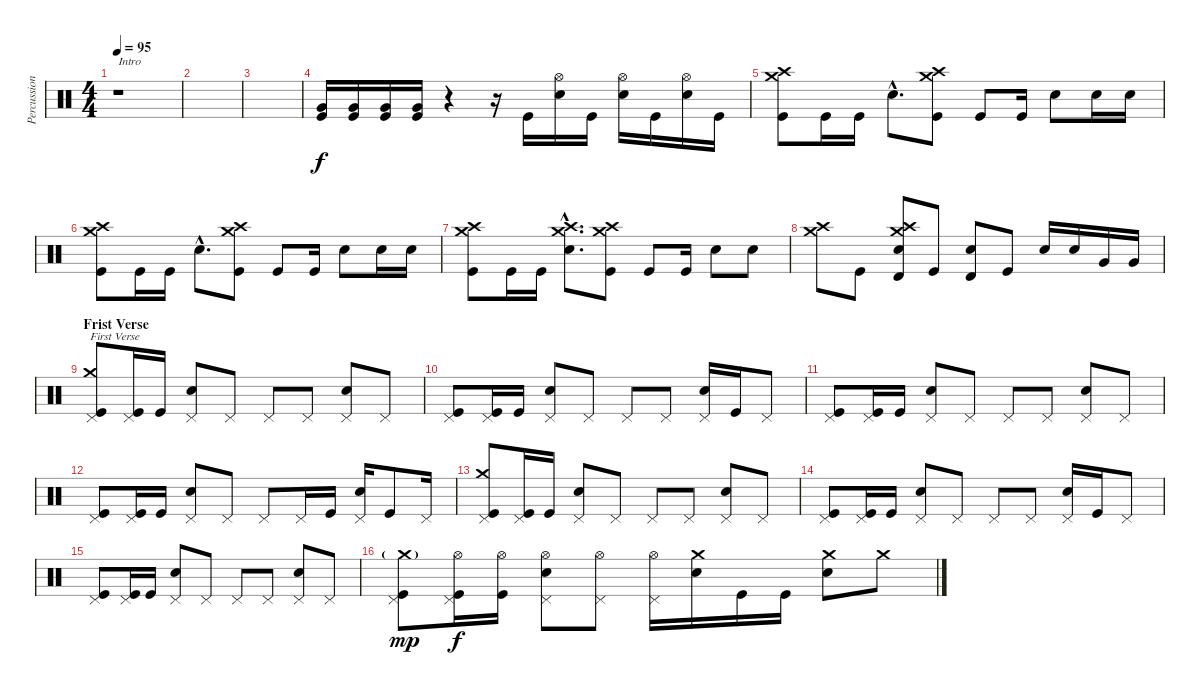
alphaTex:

\track ("Percussion" "Percussion") {instrument percussion}
\staff {score}
\articulation defaults
\ts (4 4)
\tempo 95
\clef neutral
\ks c
r.1{txt "Intro" dy f} |
|
|
("Very Low Tom (hit)" "Kick (hit)").16 ("Very Low Tom (hit)" "Kick (hit)").16 ("Very Low Tom (hit)" "Kick (hit)").16 ("Very Low Tom (hit)" "Kick (hit)").16 r.4 r.16 "Kick (hit)".16 ("Hi-Hat (open)" "Electric Snare (hit)").16 "Kick (hit)".16 ("Hi-Hat (open)" "Electric Snare (hit)").16 "Kick (hit)".16 ("Hi-Hat (open)" "Electric Snare (hit)").16 "Kick (hit)".16 |
("Crash medium (hit)" "Crash high (hit)" "Kick (hit)").8 "Kick (hit)".16 "Kick (hit)".16 "Electric Snare (hit)"{hac}.8{d} ("Crash high (hit)" "Crash medium (hit)" "Kick (hit)").8 "Kick (hit)".8 "Kick (hit)".16 "Electric Snare (hit)".8 "Electric Snare (hit)".16 "Electric Snare (hit)".16 |
("Crash medium (hit)" "Crash high (hit)" "Kick (hit)").8 "Kick (hit)".16 "Kick (hit)".16 "Electric Snare (hit)"{hac}.8{d} ("Crash high (hit)" "Crash medium (hit)" "Kick (hit)").8 "Kick (hit)".8 "Kick (hit)".16 "Electric Snare (hit)".8 "Electric Snare (hit)".16 "Electric Snare (hit)".16 |
("Crash medium (hit)" "Crash high (hit)" "Kick (hit)").8 "Kick (hit)".16 "Kick (hit)".16 ("Electric Snare (hit)"{hac} "Crash medium (hit)"{hac} "Crash high (hit)"{hac}).8{d} ("Crash high (hit)" "Crash medium (hit)" "Kick (hit)").8 "Kick (hit)".8 "Kick (hit)".16 "Electric Snare (hit)".8 "Electric Snare (hit)".8 |
("Crash medium (hit)" "Crash high (hit)").8 "Kick (hit)".8 ("Timbale high (hit)" "Electric Snare (hit)" "Crash medium (hit)" "Crash high (hit)").8 "Kick (hit)".8 ("Timbale high (hit)" "Electric Snare (hit)").8 "Kick (hit)".8 "Electric Snare (hit)".16 "Electric Snare (hit)".16 "Very Low Tom (hit)".16 "Very Low Tom (hit)".16 |
\section ("" "Frist Verse")
("Pedal Hi-Hat (hit)" "Crash medium (hit)" "Kick (hit)").8{txt "First Verse"} ("Pedal Hi-Hat (hit)" "Kick (hit)").16 "Kick (hit)".16 ("Pedal Hi-Hat (hit)" "Electric Snare (hit)").8 "Pedal Hi-Hat (hit)".8 "Pedal Hi-Hat (hit)".8 "Pedal Hi-Hat (hit)".8 ("Pedal Hi-Hat (hit)" "Electric Snare (hit)").8 "Pedal Hi-Hat (hit)".8 |
("Pedal Hi-Hat (hit)" "Kick (hit)").8 ("Pedal Hi-Hat (hit)" "Kick (hit)").16 "Kick (hit)".16 ("Pedal Hi-Hat (hit)" "Electric Snare (hit)").8 "Pedal Hi-Hat (hit)".8 "Pedal Hi-Hat (hit)".8 "Pedal Hi-Hat (hit)".8 ("Pedal Hi-Hat (hit)" "Electric Snare (hit)").16 "Kick (hit)".16 "Pedal Hi-Hat (hit)".8 |
("Pedal Hi-Hat (hit)" "Kick (hit)").8 ("Pedal Hi-Hat (hit)" "Kick (hit)").16 "Kick (hit)".16 ("Pedal Hi-Hat (hit)" "Electric Snare (hit)").8 "Pedal Hi-Hat (hit)".8 "Pedal Hi-Hat (hit)".8 "Pedal Hi-Hat (hit)".8 ("Pedal Hi-Hat (hit)" "Electric Snare (hit)").8 "Pedal Hi-Hat (hit)".8 |
("Pedal Hi-Hat (hit)" "Kick (hit)").8 ("Pedal Hi-Hat (hit)" "Kick (hit)").16 "Kick (hit)".16 ("Pedal Hi-Hat (hit)" "Electric Snare (hit)").8 "Pedal Hi-Hat (hit)".8 "Pedal Hi-Hat (hit)".8 "Pedal Hi-Hat (hit)".16 "Kick (hit)".16 ("Pedal Hi-Hat (hit)" "Electric Snare (hit)").16 "Kick (hit)".8 "Pedal Hi-Hat (hit)".16 |
("Pedal Hi-Hat (hit)" "Crash medium (hit)" "Kick (hit)").8 ("Pedal Hi-Hat (hit)" "Kick (hit)").16 "Kick (hit)".16 ("Pedal Hi-Hat (hit)" "Electric Snare (hit)").8 "Pedal Hi-Hat (hit)".8 "Pedal Hi-Hat (hit)".8 "Pedal Hi-Hat (hit)".8 ("Pedal Hi-Hat (hit)" "Electric Snare (hit)").8 "Pedal Hi-Hat (hit)".8 |
("Pedal Hi-Hat (hit)" "Kick (hit)").8 ("Pedal Hi-Hat (hit)" "Kick (hit)").16 "Kick (hit)".16 ("Pedal Hi-Hat (hit)" "Electric Snare (hit)").8 "Pedal Hi-Hat (hit)".8 "Pedal Hi-Hat (hit)".8 "Pedal Hi-Hat (hit)".8 ("Pedal Hi-Hat (hit)" "Electric Snare (hit)").16 "Kick (hit)".16 "Pedal Hi-Hat (hit)".8 |
("Pedal Hi-Hat (hit)" "Kick (hit)").8 ("Pedal Hi-Hat (hit)" "Kick (hit)").16 "Kick (hit)".16 ("Pedal Hi-Hat (hit)" "Electric Snare (hit)").8 "Pedal Hi-Hat (hit)".8 "Pedal Hi-Hat (hit)".8 "Pedal Hi-Hat (hit)".8 ("Pedal Hi-Hat (hit)" "Electric Snare (hit)").8 "Pedal Hi-Hat (hit)".8 |
("Pedal Hi-Hat (hit)" "Crash medium (hit)"{g} "Kick (hit)").8{dy mp} ("Pedal Hi-Hat (hit)" "Hi-Hat (open)" "Kick (hit)").16{dy f} ("Hi-Hat (open)" "Kick (hit)").16 ("Pedal Hi-Hat (hit)" "Electric Snare (hit)" "Hi-Hat (open)").8 ("Pedal Hi-Hat (hit)" "Hi-Hat (open)").8 ("Pedal Hi-Hat (hit)" "Hi-Hat (open)").16 ("Electric Snare (hit)" "Crash medium (hit)").16 "Kick (hit)".16 "Kick (hit)".16 ("Electric Snare (hit)" "Crash medium (hit)").8 "Crash medium (hit)".8
